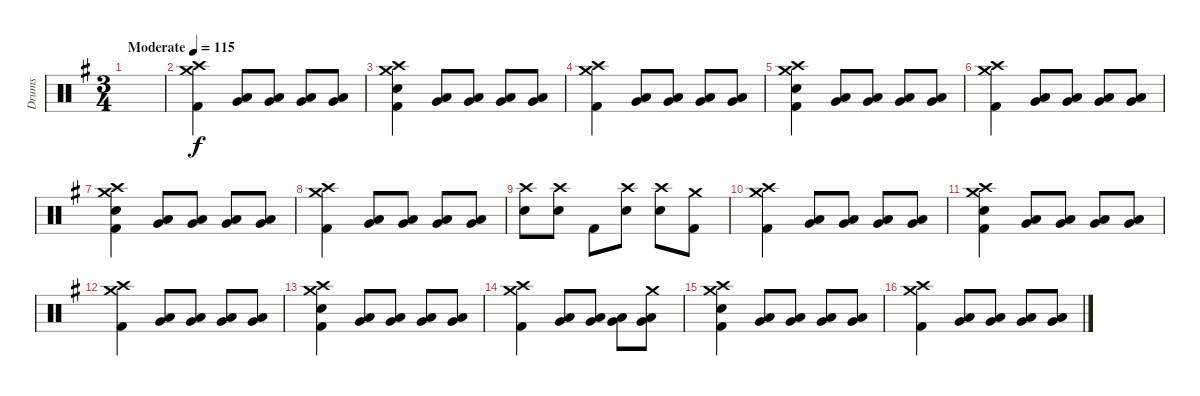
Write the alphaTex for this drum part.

\track ("Drums" "Drums") {instrument percussion}
\staff {score}
\articulation defaults
\ts (3 4)
\tempo (115 "Moderate")
\clef neutral
\ks eminor
|
("Crash high (hit)" "Crash medium (hit)" "Kick (hit) 2").4 ("Low Floor Tom (hit)" "Very Low Tom (hit)").8 ("Low Floor Tom (hit)" "Very Low Tom (hit)").8 ("Low Floor Tom (hit)" "Very Low Tom (hit)").8 ("Low Floor Tom (hit)" "Very Low Tom (hit)").8 |
("Crash high (hit)" "Crash medium (hit)" "Electric Snare (hit)" "Kick (hit) 2").4 ("Low Floor Tom (hit)" "Very Low Tom (hit)").8 ("Low Floor Tom (hit)" "Very Low Tom (hit)").8 ("Low Floor Tom (hit)" "Very Low Tom (hit)").8 ("Low Floor Tom (hit)" "Very Low Tom (hit)").8 |
("Crash high (hit)" "Crash medium (hit)" "Kick (hit) 2").4 ("Low Floor Tom (hit)" "Very Low Tom (hit)").8 ("Low Floor Tom (hit)" "Very Low Tom (hit)").8 ("Low Floor Tom (hit)" "Very Low Tom (hit)").8 ("Low Floor Tom (hit)" "Very Low Tom (hit)").8 |
("Crash high (hit)" "Crash medium (hit)" "Electric Snare (hit)" "Kick (hit) 2").4 ("Low Floor Tom (hit)" "Very Low Tom (hit)").8 ("Low Floor Tom (hit)" "Very Low Tom (hit)").8 ("Low Floor Tom (hit)" "Very Low Tom (hit)").8 ("Low Floor Tom (hit)" "Very Low Tom (hit)").8 |
("Crash high (hit)" "Crash medium (hit)" "Kick (hit) 2").4 ("Low Floor Tom (hit)" "Very Low Tom (hit)").8 ("Low Floor Tom (hit)" "Very Low Tom (hit)").8 ("Low Floor Tom (hit)" "Very Low Tom (hit)").8 ("Low Floor Tom (hit)" "Very Low Tom (hit)").8 |
("Crash high (hit)" "Crash medium (hit)" "Electric Snare (hit)" "Kick (hit) 2").4 ("Low Floor Tom (hit)" "Very Low Tom (hit)").8 ("Low Floor Tom (hit)" "Very Low Tom (hit)").8 ("Low Floor Tom (hit)" "Very Low Tom (hit)").8 ("Low Floor Tom (hit)" "Very Low Tom (hit)").8 |
("Crash high (hit)" "Crash medium (hit)" "Kick (hit) 2").4 ("Low Floor Tom (hit)" "Very Low Tom (hit)").8 ("Low Floor Tom (hit)" "Very Low Tom (hit)").8 ("Low Floor Tom (hit)" "Very Low Tom (hit)").8 ("Low Floor Tom (hit)" "Very Low Tom (hit)").8 |
("Crash high (hit)" "Electric Snare (hit)").8 ("Crash high (hit)" "Electric Snare (hit)").8 "Kick (hit) 2".8 ("Crash high (hit)" "Electric Snare (hit)").8 ("Crash high (hit)" "Electric Snare (hit)").8 ("Crash medium (hit)" "Kick (hit) 2").8 |
("Crash high (hit)" "Crash medium (hit)" "Kick (hit) 2").4 ("Low Floor Tom (hit)" "Very Low Tom (hit)").8 ("Low Floor Tom (hit)" "Very Low Tom (hit)").8 ("Low Floor Tom (hit)" "Very Low Tom (hit)").8 ("Low Floor Tom (hit)" "Very Low Tom (hit)").8 |
("Crash high (hit)" "Crash medium (hit)" "Electric Snare (hit)" "Kick (hit) 2").4 ("Low Floor Tom (hit)" "Very Low Tom (hit)").8 ("Low Floor Tom (hit)" "Very Low Tom (hit)").8 ("Low Floor Tom (hit)" "Very Low Tom (hit)").8 ("Low Floor Tom (hit)" "Very Low Tom (hit)").8 |
("Crash high (hit)" "Crash medium (hit)" "Kick (hit) 2").4 ("Low Floor Tom (hit)" "Very Low Tom (hit)").8 ("Low Floor Tom (hit)" "Very Low Tom (hit)").8 ("Low Floor Tom (hit)" "Very Low Tom (hit)").8 ("Low Floor Tom (hit)" "Very Low Tom (hit)").8 |
("Crash high (hit)" "Crash medium (hit)" "Electric Snare (hit)" "Kick (hit) 2").4 ("Low Floor Tom (hit)" "Very Low Tom (hit)").8 ("Low Floor Tom (hit)" "Very Low Tom (hit)").8 ("Low Floor Tom (hit)" "Very Low Tom (hit)").8 ("Low Floor Tom (hit)" "Very Low Tom (hit)").8 |
("Crash high (hit)" "Crash medium (hit)" "Kick (hit) 2").4 ("Low Floor Tom (hit)" "Very Low Tom (hit)").8 ("Low Floor Tom (hit)" "Very Low Tom (hit)").8 ("Low Floor Tom (hit)" "Very Low Tom (hit)").8 ("Crash medium (hit)" "Low Floor Tom (hit)" "Very Low Tom (hit)").8 |
("Crash high (hit)" "Crash medium (hit)" "Electric Snare (hit)" "Kick (hit) 2").4 ("Low Floor Tom (hit)" "Very Low Tom (hit)").8 ("Low Floor Tom (hit)" "Very Low Tom (hit)").8 ("Low Floor Tom (hit)" "Very Low Tom (hit)").8 ("Low Floor Tom (hit)" "Very Low Tom (hit)").8 |
("Crash high (hit)" "Crash medium (hit)" "Kick (hit) 2").4 ("Low Floor Tom (hit)" "Very Low Tom (hit)").8 ("Low Floor Tom (hit)" "Very Low Tom (hit)").8 ("Low Floor Tom (hit)" "Very Low Tom (hit)").8 ("Low Floor Tom (hit)" "Very Low Tom (hit)").8
